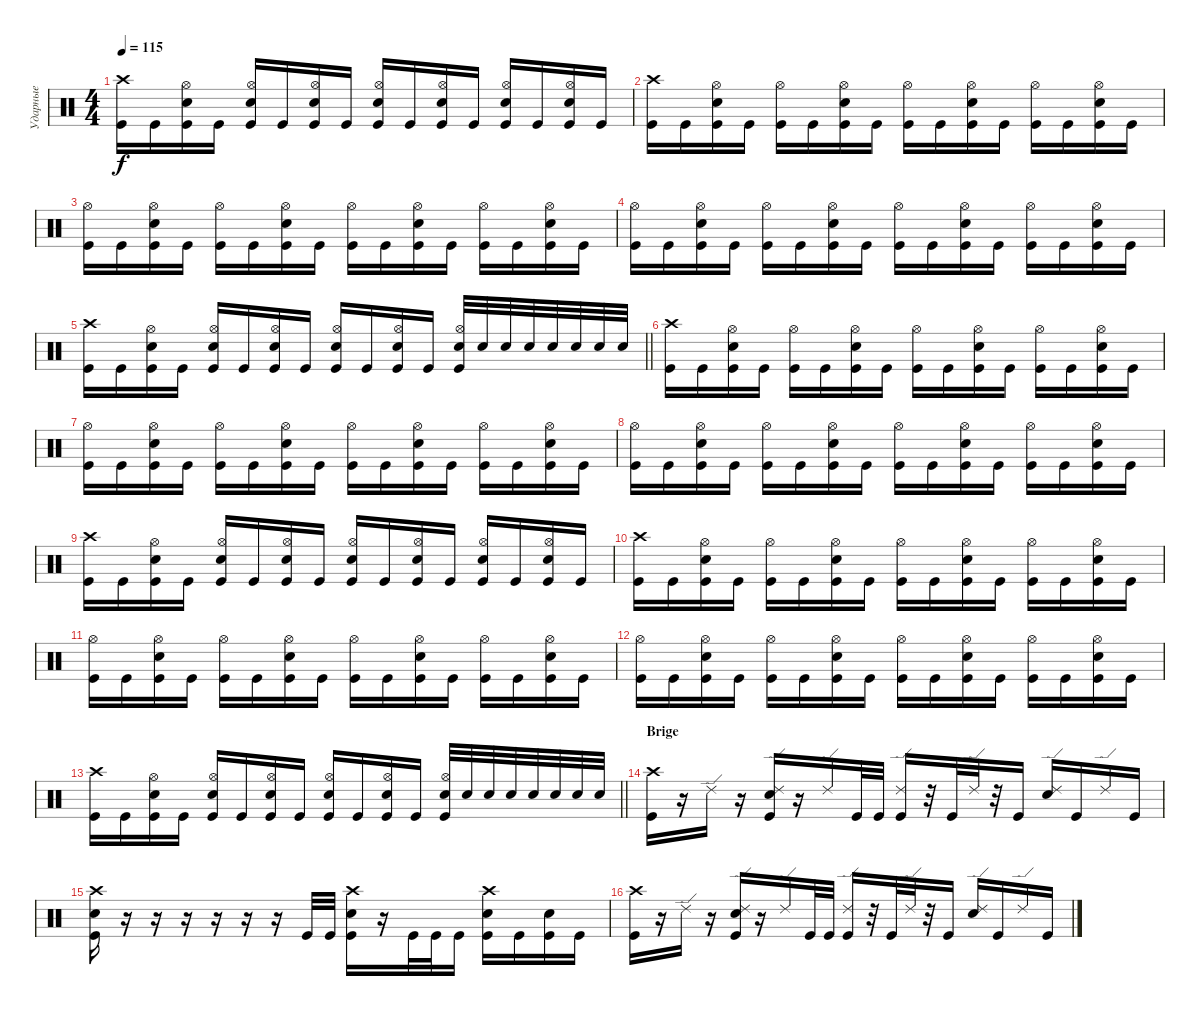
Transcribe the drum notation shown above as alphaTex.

\track ("Ударные" "Ударные") {instrument percussion}
\staff {score}
\articulation defaults
\ts (4 4)
\tempo 115
\clef neutral
\ks c
("Crash high (hit)" "Kick (hit)").16{dy f} "Kick (hit)".16 ("Hi-Hat (open)" "Snare (hit) 2" "Kick (hit)").16 "Kick (hit)".16 ("Hi-Hat (open)" "Snare (hit) 2" "Kick (hit)").16 "Kick (hit)".16 ("Hi-Hat (open)" "Snare (hit) 2" "Kick (hit)").16 "Kick (hit)".16 ("Hi-Hat (open)" "Snare (hit) 2" "Kick (hit)").16 "Kick (hit)".16 ("Hi-Hat (open)" "Snare (hit) 2" "Kick (hit)").16 "Kick (hit)".16 ("Hi-Hat (open)" "Snare (hit) 2" "Kick (hit)").16 "Kick (hit)".16 ("Hi-Hat (open)" "Snare (hit) 2" "Kick (hit)").16 "Kick (hit)".16 |
("Crash high (hit)" "Kick (hit)").16 "Kick (hit)".16 ("Hi-Hat (open)" "Snare (hit) 2" "Kick (hit)").16 "Kick (hit)".16 ("Hi-Hat (open)" "Kick (hit)").16 "Kick (hit)".16 ("Hi-Hat (open)" "Snare (hit) 2" "Kick (hit)").16 "Kick (hit)".16 ("Hi-Hat (open)" "Kick (hit)").16 "Kick (hit)".16 ("Hi-Hat (open)" "Snare (hit) 2" "Kick (hit)").16 "Kick (hit)".16 ("Hi-Hat (open)" "Kick (hit)").16 "Kick (hit)".16 ("Hi-Hat (open)" "Snare (hit) 2" "Kick (hit)").16 "Kick (hit)".16 |
("Hi-Hat (open)" "Kick (hit)").16 "Kick (hit)".16 ("Hi-Hat (open)" "Snare (hit) 2" "Kick (hit)").16 "Kick (hit)".16 ("Hi-Hat (open)" "Kick (hit)").16 "Kick (hit)".16 ("Hi-Hat (open)" "Snare (hit) 2" "Kick (hit)").16 "Kick (hit)".16 ("Hi-Hat (open)" "Kick (hit)").16 "Kick (hit)".16 ("Hi-Hat (open)" "Snare (hit) 2" "Kick (hit)").16 "Kick (hit)".16 ("Hi-Hat (open)" "Kick (hit)").16 "Kick (hit)".16 ("Hi-Hat (open)" "Snare (hit) 2" "Kick (hit)").16 "Kick (hit)".16 |
("Hi-Hat (open)" "Kick (hit)").16 "Kick (hit)".16 ("Hi-Hat (open)" "Snare (hit) 2" "Kick (hit)").16 "Kick (hit)".16 ("Hi-Hat (open)" "Kick (hit)").16 "Kick (hit)".16 ("Hi-Hat (open)" "Snare (hit) 2" "Kick (hit)").16 "Kick (hit)".16 ("Hi-Hat (open)" "Kick (hit)").16 "Kick (hit)".16 ("Hi-Hat (open)" "Snare (hit) 2" "Kick (hit)").16 "Kick (hit)".16 ("Hi-Hat (open)" "Kick (hit)").16 "Kick (hit)".16 ("Hi-Hat (open)" "Snare (hit) 2" "Kick (hit)").16 "Kick (hit)".16 |
\barLineRight lightlight
("Crash high (hit)" "Kick (hit)").16 "Kick (hit)".16 ("Hi-Hat (open)" "Snare (hit) 2" "Kick (hit)").16 "Kick (hit)".16 ("Hi-Hat (open)" "Snare (hit) 2" "Kick (hit)").16 "Kick (hit)".16 ("Hi-Hat (open)" "Snare (hit) 2" "Kick (hit)").16 "Kick (hit)".16 ("Hi-Hat (open)" "Snare (hit) 2" "Kick (hit)").16 "Kick (hit)".16 ("Hi-Hat (open)" "Snare (hit) 2" "Kick (hit)").16 "Kick (hit)".16 ("Hi-Hat (open)" "Snare (hit) 2" "Kick (hit)").32 "Snare (hit) 2".32 "Snare (hit) 2".32 "Snare (hit) 2".32 "Snare (hit) 2".32 "Snare (hit) 2".32 "Snare (hit) 2".32 "Snare (hit) 2".32 |
("Crash high (hit)" "Kick (hit)").16 "Kick (hit)".16 ("Hi-Hat (open)" "Snare (hit) 2" "Kick (hit)").16 "Kick (hit)".16 ("Hi-Hat (open)" "Kick (hit)").16 "Kick (hit)".16 ("Hi-Hat (open)" "Snare (hit) 2" "Kick (hit)").16 "Kick (hit)".16 ("Hi-Hat (open)" "Kick (hit)").16 "Kick (hit)".16 ("Hi-Hat (open)" "Snare (hit) 2" "Kick (hit)").16 "Kick (hit)".16 ("Hi-Hat (open)" "Kick (hit)").16 "Kick (hit)".16 ("Hi-Hat (open)" "Snare (hit) 2" "Kick (hit)").16 "Kick (hit)".16 |
("Hi-Hat (open)" "Kick (hit)").16 "Kick (hit)".16 ("Hi-Hat (open)" "Snare (hit) 2" "Kick (hit)").16 "Kick (hit)".16 ("Hi-Hat (open)" "Kick (hit)").16 "Kick (hit)".16 ("Hi-Hat (open)" "Snare (hit) 2" "Kick (hit)").16 "Kick (hit)".16 ("Hi-Hat (open)" "Kick (hit)").16 "Kick (hit)".16 ("Hi-Hat (open)" "Snare (hit) 2" "Kick (hit)").16 "Kick (hit)".16 ("Hi-Hat (open)" "Kick (hit)").16 "Kick (hit)".16 ("Hi-Hat (open)" "Snare (hit) 2" "Kick (hit)").16 "Kick (hit)".16 |
("Hi-Hat (open)" "Kick (hit)").16 "Kick (hit)".16 ("Hi-Hat (open)" "Snare (hit) 2" "Kick (hit)").16 "Kick (hit)".16 ("Hi-Hat (open)" "Kick (hit)").16 "Kick (hit)".16 ("Hi-Hat (open)" "Snare (hit) 2" "Kick (hit)").16 "Kick (hit)".16 ("Hi-Hat (open)" "Kick (hit)").16 "Kick (hit)".16 ("Hi-Hat (open)" "Snare (hit) 2" "Kick (hit)").16 "Kick (hit)".16 ("Hi-Hat (open)" "Kick (hit)").16 "Kick (hit)".16 ("Hi-Hat (open)" "Snare (hit) 2" "Kick (hit)").16 "Kick (hit)".16 |
("Crash high (hit)" "Kick (hit)").16 "Kick (hit)".16 ("Hi-Hat (open)" "Snare (hit) 2" "Kick (hit)").16 "Kick (hit)".16 ("Hi-Hat (open)" "Snare (hit) 2" "Kick (hit)").16 "Kick (hit)".16 ("Hi-Hat (open)" "Snare (hit) 2" "Kick (hit)").16 "Kick (hit)".16 ("Hi-Hat (open)" "Snare (hit) 2" "Kick (hit)").16 "Kick (hit)".16 ("Hi-Hat (open)" "Snare (hit) 2" "Kick (hit)").16 "Kick (hit)".16 ("Hi-Hat (open)" "Snare (hit) 2" "Kick (hit)").16 "Kick (hit)".16 ("Hi-Hat (open)" "Snare (hit) 2" "Kick (hit)").16 "Kick (hit)".16 |
("Crash high (hit)" "Kick (hit)").16 "Kick (hit)".16 ("Hi-Hat (open)" "Snare (hit) 2" "Kick (hit)").16 "Kick (hit)".16 ("Hi-Hat (open)" "Kick (hit)").16 "Kick (hit)".16 ("Hi-Hat (open)" "Snare (hit) 2" "Kick (hit)").16 "Kick (hit)".16 ("Hi-Hat (open)" "Kick (hit)").16 "Kick (hit)".16 ("Hi-Hat (open)" "Snare (hit) 2" "Kick (hit)").16 "Kick (hit)".16 ("Hi-Hat (open)" "Kick (hit)").16 "Kick (hit)".16 ("Hi-Hat (open)" "Snare (hit) 2" "Kick (hit)").16 "Kick (hit)".16 |
("Hi-Hat (open)" "Kick (hit)").16 "Kick (hit)".16 ("Hi-Hat (open)" "Snare (hit) 2" "Kick (hit)").16 "Kick (hit)".16 ("Hi-Hat (open)" "Kick (hit)").16 "Kick (hit)".16 ("Hi-Hat (open)" "Snare (hit) 2" "Kick (hit)").16 "Kick (hit)".16 ("Hi-Hat (open)" "Kick (hit)").16 "Kick (hit)".16 ("Hi-Hat (open)" "Snare (hit) 2" "Kick (hit)").16 "Kick (hit)".16 ("Hi-Hat (open)" "Kick (hit)").16 "Kick (hit)".16 ("Hi-Hat (open)" "Snare (hit) 2" "Kick (hit)").16 "Kick (hit)".16 |
("Hi-Hat (open)" "Kick (hit)").16 "Kick (hit)".16 ("Hi-Hat (open)" "Snare (hit) 2" "Kick (hit)").16 "Kick (hit)".16 ("Hi-Hat (open)" "Kick (hit)").16 "Kick (hit)".16 ("Hi-Hat (open)" "Snare (hit) 2" "Kick (hit)").16 "Kick (hit)".16 ("Hi-Hat (open)" "Kick (hit)").16 "Kick (hit)".16 ("Hi-Hat (open)" "Snare (hit) 2" "Kick (hit)").16 "Kick (hit)".16 ("Hi-Hat (open)" "Kick (hit)").16 "Kick (hit)".16 ("Hi-Hat (open)" "Snare (hit) 2" "Kick (hit)").16 "Kick (hit)".16 |
\barLineRight lightlight
("Crash high (hit)" "Kick (hit)").16 "Kick (hit)".16 ("Hi-Hat (open)" "Snare (hit) 2" "Kick (hit)").16 "Kick (hit)".16 ("Hi-Hat (open)" "Snare (hit) 2" "Kick (hit)").16 "Kick (hit)".16 ("Hi-Hat (open)" "Snare (hit) 2" "Kick (hit)").16 "Kick (hit)".16 ("Hi-Hat (open)" "Snare (hit) 2" "Kick (hit)").16 "Kick (hit)".16 ("Hi-Hat (open)" "Snare (hit) 2" "Kick (hit)").16 "Kick (hit)".16 ("Hi-Hat (open)" "Snare (hit) 2" "Kick (hit)").32 "Snare (hit) 2".32 "Snare (hit) 2".32 "Snare (hit) 2".32 "Snare (hit) 2".32 "Snare (hit) 2".32 "Snare (hit) 2".32 "Snare (hit) 2".32 |
\section ("" "Brige")
("Crash high (hit)" "Kick (hit)").16 r.16 "Ride (edge) 2".16 r.16 ("Ride (edge) 2" "Snare (hit) 2" "Kick (hit)").16 r.16 "Ride (edge) 2".16 "Kick (hit)".32 "Kick (hit)".32 ("Ride (edge) 2" "Kick (hit)").16 r.32 "Kick (hit)".32 "Ride (edge) 2".32 r.32 "Kick (hit)".16 ("Ride (edge) 2" "Snare (hit) 2").16 "Kick (hit)".16 "Ride (edge) 2".16 "Kick (hit)".16 |
("Crash high (hit)" "Snare (hit) 2" "Kick (hit)").16 r.16 r.16 r.16 r.16 r.16 r.16 "Kick (hit)".32 "Kick (hit)".32 ("Crash high (hit)" "Snare (hit) 2" "Kick (hit)").16 r.16 "Kick (hit)".32 "Kick (hit)".32 "Kick (hit)".16 ("Crash high (hit)" "Snare (hit) 2" "Kick (hit)").16 "Kick (hit)".16 ("Snare (hit) 2" "Kick (hit)").16 "Kick (hit)".16 |
("Crash high (hit)" "Kick (hit)").16 r.16 "Ride (edge) 2".16 r.16 ("Ride (edge) 2" "Snare (hit) 2" "Kick (hit)").16 r.16 "Ride (edge) 2".16 "Kick (hit)".32 "Kick (hit)".32 ("Ride (edge) 2" "Kick (hit)").16 r.32 "Kick (hit)".32 "Ride (edge) 2".32 r.32 "Kick (hit)".16 ("Ride (edge) 2" "Snare (hit) 2").16 "Kick (hit)".16 "Ride (edge) 2".16 "Kick (hit)".16
